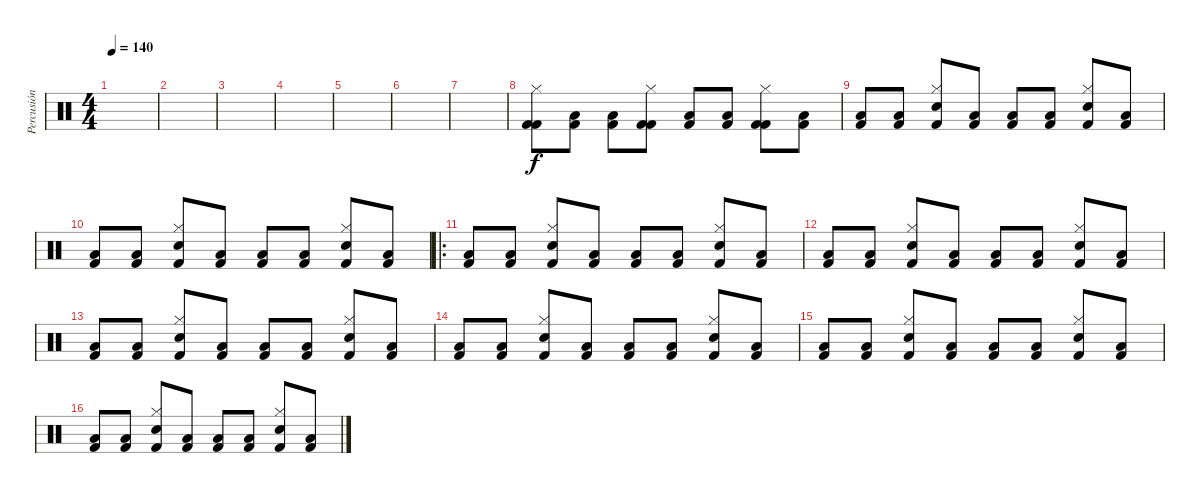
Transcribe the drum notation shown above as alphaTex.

\track ("Percusión" "Percusión") {instrument percussion}
\staff {score}
\articulation defaults
\ts (4 4)
\tempo 140
\clef neutral
\ks c
|
|
|
|
|
|
|
("Kick (hit) 2" "Kick (hit) 2" "Hi-Hat (closed)").8 ("Kick (hit) 2" "Low Tom (hit)").8 ("Kick (hit) 2" "Low Tom (hit)").8 ("Kick (hit) 2" "Kick (hit) 2" "Hi-Hat (closed)").8 ("Kick (hit) 2" "Low Tom (hit)").8 ("Kick (hit) 2" "Low Tom (hit)").8 ("Kick (hit) 2" "Kick (hit) 2" "Hi-Hat (closed)").8 ("Kick (hit) 2" "Low Tom (hit)").8 |
("Kick (hit) 2" "Low Tom (hit)").8 ("Kick (hit) 2" "Low Tom (hit)").8 ("Kick (hit) 2" "Snare (hit) 2" "Hi-Hat (closed)").8 ("Kick (hit) 2" "Low Tom (hit)").8 ("Kick (hit) 2" "Low Tom (hit)").8 ("Kick (hit) 2" "Low Tom (hit)").8 ("Kick (hit) 2" "Snare (hit) 2" "Hi-Hat (closed)").8 ("Kick (hit) 2" "Low Tom (hit)").8 |
("Kick (hit) 2" "Low Tom (hit)").8 ("Kick (hit) 2" "Low Tom (hit)").8 ("Kick (hit) 2" "Snare (hit) 2" "Hi-Hat (closed)").8 ("Kick (hit) 2" "Low Tom (hit)").8 ("Kick (hit) 2" "Low Tom (hit)").8 ("Kick (hit) 2" "Low Tom (hit)").8 ("Kick (hit) 2" "Snare (hit) 2" "Hi-Hat (closed)").8 ("Kick (hit) 2" "Low Tom (hit)").8 |
\ro
("Kick (hit) 2" "Low Tom (hit)").8 ("Kick (hit) 2" "Low Tom (hit)").8 ("Kick (hit) 2" "Snare (hit) 2" "Hi-Hat (closed)").8 ("Kick (hit) 2" "Low Tom (hit)").8 ("Kick (hit) 2" "Low Tom (hit)").8 ("Kick (hit) 2" "Low Tom (hit)").8 ("Kick (hit) 2" "Snare (hit) 2" "Hi-Hat (closed)").8 ("Kick (hit) 2" "Low Tom (hit)").8 |
("Kick (hit) 2" "Low Tom (hit)").8 ("Kick (hit) 2" "Low Tom (hit)").8 ("Kick (hit) 2" "Snare (hit) 2" "Hi-Hat (closed)").8 ("Kick (hit) 2" "Low Tom (hit)").8 ("Kick (hit) 2" "Low Tom (hit)").8 ("Kick (hit) 2" "Low Tom (hit)").8 ("Kick (hit) 2" "Snare (hit) 2" "Hi-Hat (closed)").8 ("Kick (hit) 2" "Low Tom (hit)").8 |
("Kick (hit) 2" "Low Tom (hit)").8 ("Kick (hit) 2" "Low Tom (hit)").8 ("Kick (hit) 2" "Snare (hit) 2" "Hi-Hat (closed)").8 ("Kick (hit) 2" "Low Tom (hit)").8 ("Kick (hit) 2" "Low Tom (hit)").8 ("Kick (hit) 2" "Low Tom (hit)").8 ("Kick (hit) 2" "Snare (hit) 2" "Hi-Hat (closed)").8 ("Kick (hit) 2" "Low Tom (hit)").8 |
("Kick (hit) 2" "Low Tom (hit)").8 ("Kick (hit) 2" "Low Tom (hit)").8 ("Kick (hit) 2" "Snare (hit) 2" "Hi-Hat (closed)").8 ("Kick (hit) 2" "Low Tom (hit)").8 ("Kick (hit) 2" "Low Tom (hit)").8 ("Kick (hit) 2" "Low Tom (hit)").8 ("Kick (hit) 2" "Snare (hit) 2" "Hi-Hat (closed)").8 ("Kick (hit) 2" "Low Tom (hit)").8 |
("Kick (hit) 2" "Low Tom (hit)").8 ("Kick (hit) 2" "Low Tom (hit)").8 ("Kick (hit) 2" "Snare (hit) 2" "Hi-Hat (closed)").8 ("Kick (hit) 2" "Low Tom (hit)").8 ("Kick (hit) 2" "Low Tom (hit)").8 ("Kick (hit) 2" "Low Tom (hit)").8 ("Kick (hit) 2" "Snare (hit) 2" "Hi-Hat (closed)").8 ("Kick (hit) 2" "Low Tom (hit)").8 |
("Kick (hit) 2" "Low Tom (hit)").8 ("Kick (hit) 2" "Low Tom (hit)").8 ("Kick (hit) 2" "Snare (hit) 2" "Hi-Hat (closed)").8 ("Kick (hit) 2" "Low Tom (hit)").8 ("Kick (hit) 2" "Low Tom (hit)").8 ("Kick (hit) 2" "Low Tom (hit)").8 ("Kick (hit) 2" "Snare (hit) 2" "Hi-Hat (closed)").8 ("Kick (hit) 2" "Low Tom (hit)").8
